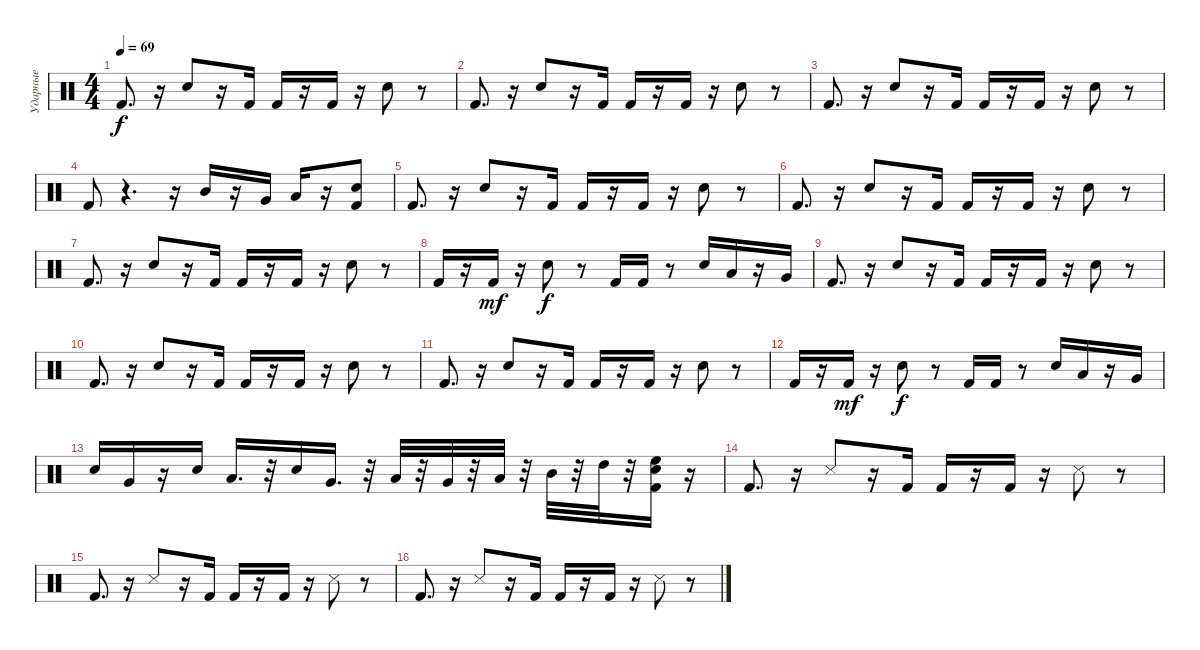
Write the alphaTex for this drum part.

\track ("Ударные" "Ударные") {instrument percussion}
\staff {score}
\articulation defaults
\ts (4 4)
\tempo 69
\clef neutral
\ks c "Kick (hit) 2".8{d dy f}
r.16 "Snare (hit) 2".8 r.16 "Kick (hit) 2".16 "Kick (hit) 2".16 r.16 "Kick (hit) 2".16 r.16 "Snare (hit) 2".8 r.8 |
"Kick (hit) 2".8{d} r.16 "Snare (hit) 2".8 r.16 "Kick (hit) 2".16 "Kick (hit) 2".16 r.16 "Kick (hit) 2".16 r.16 "Snare (hit) 2".8 r.8 |
"Kick (hit) 2".8{d} r.16 "Snare (hit) 2".8 r.16 "Kick (hit) 2".16 "Kick (hit) 2".16 r.16 "Kick (hit) 2".16 r.16 "Snare (hit) 2".8 r.8 |
"Kick (hit) 2".8 r.4{d} r.16 "Mid Tom (hit)".16 r.16 "Very Low Tom (hit)".16 "Low Tom (hit)".16 r.16 ("Kick (hit) 2" "Snare (hit) 2").8 |
"Kick (hit) 2".8{d} r.16 "Snare (hit) 2".8 r.16 "Kick (hit) 2".16 "Kick (hit) 2".16 r.16 "Kick (hit) 2".16 r.16 "Snare (hit) 2".8 r.8 |
"Kick (hit) 2".8{d} r.16 "Snare (hit) 2".8 r.16 "Kick (hit) 2".16 "Kick (hit) 2".16 r.16 "Kick (hit) 2".16 r.16 "Snare (hit) 2".8 r.8 |
"Kick (hit) 2".8{d} r.16 "Snare (hit) 2".8 r.16 "Kick (hit) 2".16 "Kick (hit) 2".16 r.16 "Kick (hit) 2".16 r.16 "Snare (hit) 2".8 r.8 |
"Kick (hit) 2".16 r.16 "Kick (hit) 2".16{dy mf} r.16 "Snare (hit) 2".8{dy f} r.8 "Kick (hit) 2".16 "Kick (hit) 2".16 r.8 "Snare (hit) 2".16 "Low Tom (hit)".16 r.16 "Very Low Tom (hit)".16 |
"Kick (hit) 2".8{d} r.16 "Snare (hit) 2".8 r.16 "Kick (hit) 2".16 "Kick (hit) 2".16 r.16 "Kick (hit) 2".16 r.16 "Snare (hit) 2".8 r.8 |
"Kick (hit) 2".8{d} r.16 "Snare (hit) 2".8 r.16 "Kick (hit) 2".16 "Kick (hit) 2".16 r.16 "Kick (hit) 2".16 r.16 "Snare (hit) 2".8 r.8 |
"Kick (hit) 2".8{d} r.16 "Snare (hit) 2".8 r.16 "Kick (hit) 2".16 "Kick (hit) 2".16 r.16 "Kick (hit) 2".16 r.16 "Snare (hit) 2".8 r.8 |
"Kick (hit) 2".16 r.16 "Kick (hit) 2".16{dy mf} r.16 "Snare (hit) 2".8{dy f} r.8 "Kick (hit) 2".16 "Kick (hit) 2".16 r.8 "Snare (hit) 2".16 "Low Tom (hit)".16 r.16 "Very Low Tom (hit)".16 |
"Snare (hit) 2".16 "Very Low Tom (hit)".16 r.16 "Snare (hit) 2".16 "Low Floor Tom (hit)".16{d} r.32 "Snare (hit) 2".16 "Very Low Tom (hit)".16{d} r.32 "Low Floor Tom (hit)".32 r.32 "Very Low Tom (hit)".32 r.32 "Low Tom (hit)".32 r.32 "Mid Tom (hit)".32 r.32 "High Tom (hit)".32 r.32 ("High Floor Tom (hit)" "Kick (hit) 2" "Snare (hit) 2").16 r.16 |
"Kick (hit) 2".8{d} r.16 "Snare (side stick) 3".8 r.16 "Kick (hit) 2".16 "Kick (hit) 2".16 r.16 "Kick (hit) 2".16 r.16 "Snare (side stick) 3".8 r.8 |
"Kick (hit) 2".8{d} r.16 "Snare (side stick) 3".8 r.16 "Kick (hit) 2".16 "Kick (hit) 2".16 r.16 "Kick (hit) 2".16 r.16 "Snare (side stick) 3".8 r.8 |
"Kick (hit) 2".8{d} r.16 "Snare (side stick) 3".8 r.16 "Kick (hit) 2".16 "Kick (hit) 2".16 r.16 "Kick (hit) 2".16 r.16 "Snare (side stick) 3".8 r.8
